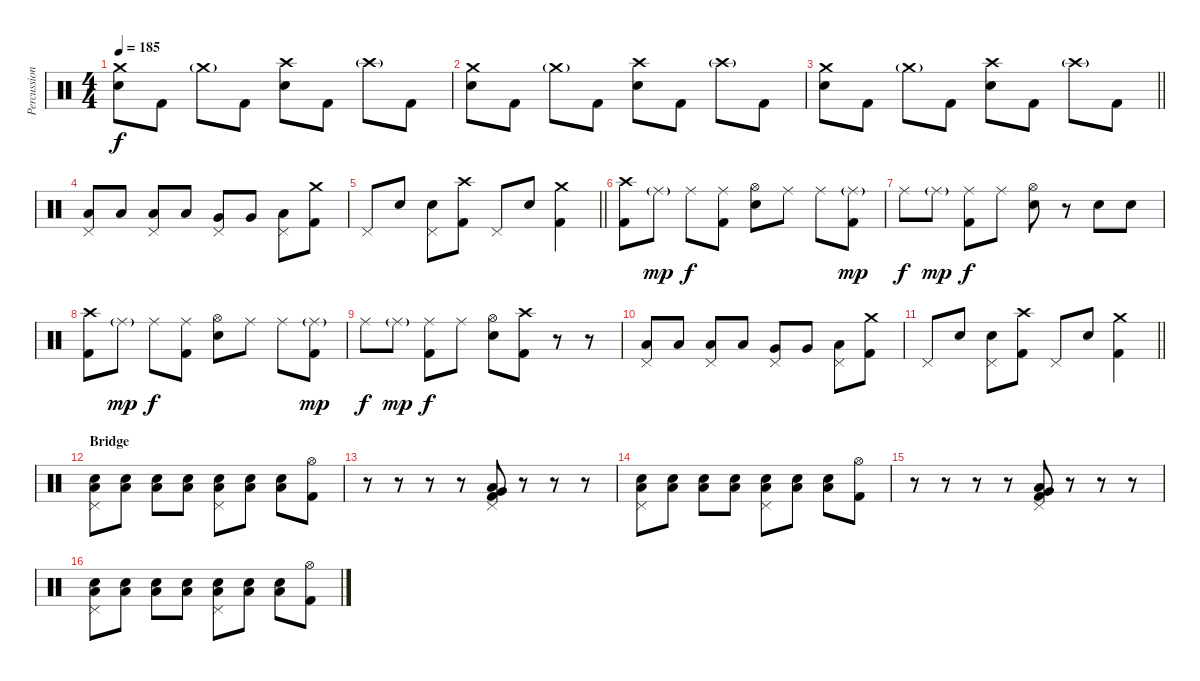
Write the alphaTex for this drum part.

\track ("Percussion" "Percussion") {instrument percussion}
\staff {score}
\articulation defaults
\ts (4 4)
\tempo 185
\clef neutral
\ks c
("Crash medium (hit)" "Electric Snare (hit)").8{dy f} "Kick (hit) 2".8 "Crash medium (hit)"{g}.8 "Kick (hit) 2".8 ("Crash high (hit)" "Electric Snare (hit)").8 "Kick (hit) 2".8 "Crash high (hit)"{g}.8 "Kick (hit) 2".8 |
("Crash medium (hit)" "Electric Snare (hit)").8 "Kick (hit) 2".8 "Crash medium (hit)"{g}.8 "Kick (hit) 2".8 ("Crash high (hit)" "Electric Snare (hit)").8 "Kick (hit) 2".8 "Crash high (hit)"{g}.8 "Kick (hit) 2".8 |
\barLineRight lightlight
("Crash medium (hit)" "Electric Snare (hit)").8 "Kick (hit) 2".8 "Crash medium (hit)"{g}.8 "Kick (hit) 2".8 ("Crash high (hit)" "Electric Snare (hit)").8 "Kick (hit) 2".8 "Crash high (hit)"{g}.8 "Kick (hit) 2".8 |
("Pedal Hi-Hat (hit)" "Low Tom (hit)").8 "Low Tom (hit)".8 ("Pedal Hi-Hat (hit)" "Low Tom (hit)").8 "Low Tom (hit)".8 ("Pedal Hi-Hat (hit)" "Very Low Tom (hit)").8 "Very Low Tom (hit)".8 ("Pedal Hi-Hat (hit)" "Low Floor Tom (hit)").8 ("Crash medium (hit)" "Kick (hit) 2").8 |
\barLineRight lightlight "Pedal Hi-Hat (hit)".8 "Electric Snare (hit)".8
("Pedal Hi-Hat (hit)" "Electric Snare (hit)").8 ("Crash high (hit)" "Kick (hit) 2").8 "Pedal Hi-Hat (hit)".8 "Electric Snare (hit)".8 ("Crash medium (hit)" "Kick (hit) 2").4 |
("Crash high (hit)" "Kick (hit) 2").8 "Ride (middle)"{g}.8{dy mp} "Ride (middle)".8{dy f} ("Ride (middle)" "Kick (hit) 2").8 ("Hi-Hat (open)" "Electric Snare (hit)").8 "Ride (middle)".8 "Ride (middle)".8 ("Ride (middle)"{g} "Kick (hit) 2").8{dy mp} |
"Ride (middle)".8{dy f} "Ride (middle)"{g}.8{dy mp} ("Ride (middle)" "Kick (hit) 2").8{dy f} "Ride (middle)".8 ("Hi-Hat (open)" "Electric Snare (hit)").8 r.8 "Electric Snare (hit)".8 "Electric Snare (hit)".8 |
("Crash high (hit)" "Kick (hit) 2").8 "Ride (middle)"{g}.8{dy mp} "Ride (middle)".8{dy f} ("Ride (middle)" "Kick (hit) 2").8 ("Hi-Hat (open)" "Electric Snare (hit)").8 "Ride (middle)".8 "Ride (middle)".8 ("Ride (middle)"{g} "Kick (hit) 2").8{dy mp} |
"Ride (middle)".8{dy f} "Ride (middle)"{g}.8{dy mp} ("Ride (middle)" "Kick (hit) 2").8{dy f} "Ride (middle)".8 ("Hi-Hat (open)" "Electric Snare (hit)").8 ("Crash high (hit)" "Kick (hit) 2").8 r.8 r.8 |
("Pedal Hi-Hat (hit)" "Low Tom (hit)").8 "Low Tom (hit)".8 ("Pedal Hi-Hat (hit)" "Low Tom (hit)").8 "Low Tom (hit)".8 ("Pedal Hi-Hat (hit)" "Very Low Tom (hit)").8 "Very Low Tom (hit)".8 ("Pedal Hi-Hat (hit)" "Low Floor Tom (hit)").8 ("Crash medium (hit)" "Kick (hit) 2").8 |
\barLineRight lightlight "Pedal Hi-Hat (hit)".8 "Electric Snare (hit)".8
("Pedal Hi-Hat (hit)" "Electric Snare (hit)").8 ("Crash high (hit)" "Kick (hit) 2").8 "Pedal Hi-Hat (hit)".8 "Electric Snare (hit)".8 ("Crash medium (hit)" "Kick (hit) 2").4 |
\section ("" "Bridge")
("Pedal Hi-Hat (hit)" "Low Floor Tom (hit)" "Electric Snare (hit)").8 ("Low Floor Tom (hit)" "Electric Snare (hit)").8 ("Low Floor Tom (hit)" "Electric Snare (hit)").8 ("Low Floor Tom (hit)" "Electric Snare (hit)").8 ("Pedal Hi-Hat (hit)" "Low Floor Tom (hit)" "Electric Snare (hit)").8 ("Low Floor Tom (hit)" "Electric Snare (hit)").8 ("Low Floor Tom (hit)" "Electric Snare (hit)").8 ("Hi-Hat (open)" "Kick (hit) 2").8 |
r.8 r.8 r.8 r.8 ("Pedal Hi-Hat (hit)" "Very Low Tom (hit)" "Low Floor Tom (hit)" "Kick (hit) 2").8 r.8 r.8 r.8 |
("Pedal Hi-Hat (hit)" "Low Floor Tom (hit)" "Electric Snare (hit)").8 ("Low Floor Tom (hit)" "Electric Snare (hit)").8 ("Low Floor Tom (hit)" "Electric Snare (hit)").8 ("Low Floor Tom (hit)" "Electric Snare (hit)").8 ("Pedal Hi-Hat (hit)" "Low Floor Tom (hit)" "Electric Snare (hit)").8 ("Low Floor Tom (hit)" "Electric Snare (hit)").8 ("Low Floor Tom (hit)" "Electric Snare (hit)").8 ("Hi-Hat (open)" "Kick (hit) 2").8 |
r.8 r.8 r.8 r.8 ("Pedal Hi-Hat (hit)" "Very Low Tom (hit)" "Low Floor Tom (hit)" "Kick (hit) 2").8 r.8 r.8 r.8 |
("Pedal Hi-Hat (hit)" "Low Floor Tom (hit)" "Electric Snare (hit)").8 ("Low Floor Tom (hit)" "Electric Snare (hit)").8 ("Low Floor Tom (hit)" "Electric Snare (hit)").8 ("Low Floor Tom (hit)" "Electric Snare (hit)").8 ("Pedal Hi-Hat (hit)" "Low Floor Tom (hit)" "Electric Snare (hit)").8 ("Low Floor Tom (hit)" "Electric Snare (hit)").8 ("Low Floor Tom (hit)" "Electric Snare (hit)").8 ("Hi-Hat (open)" "Kick (hit) 2").8
